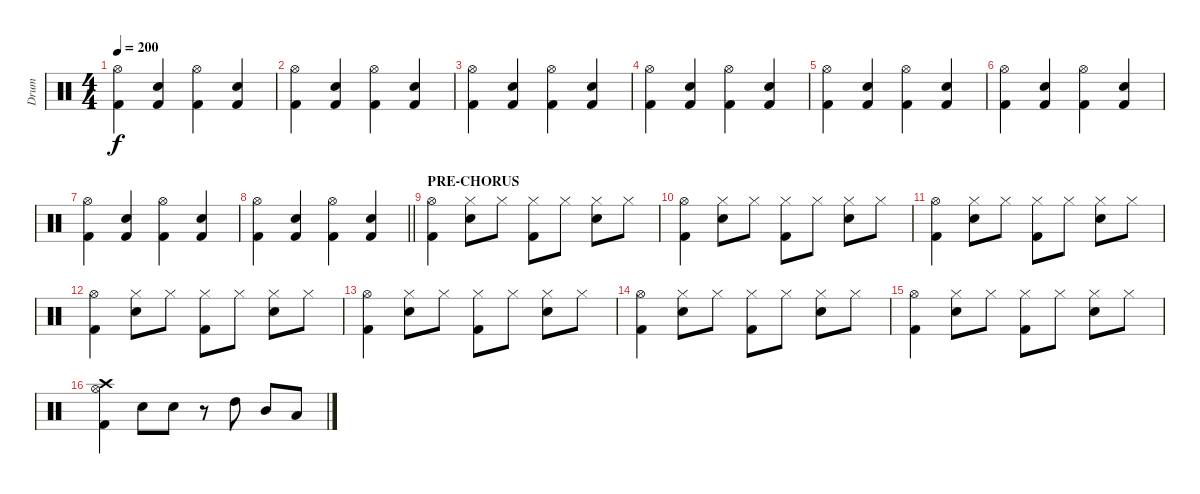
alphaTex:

\track ("Drum" "Drum") {instrument percussion}
\staff {score}
\articulation defaults
\ts (4 4)
\tempo 200
\clef neutral
\ks c
("Hi-Hat (open)" "Kick (hit) 2").4{dy f} ("Snare (hit) 2" "Kick (hit) 2").4 ("Hi-Hat (open)" "Kick (hit) 2").4 ("Snare (hit) 2" "Kick (hit) 2").4 |
("Hi-Hat (open)" "Kick (hit) 2").4 ("Snare (hit) 2" "Kick (hit) 2").4 ("Hi-Hat (open)" "Kick (hit) 2").4 ("Snare (hit) 2" "Kick (hit) 2").4 |
("Hi-Hat (open)" "Kick (hit) 2").4 ("Snare (hit) 2" "Kick (hit) 2").4 ("Hi-Hat (open)" "Kick (hit) 2").4 ("Snare (hit) 2" "Kick (hit) 2").4 |
("Hi-Hat (open)" "Kick (hit) 2").4 ("Snare (hit) 2" "Kick (hit) 2").4 ("Hi-Hat (open)" "Kick (hit) 2").4 ("Snare (hit) 2" "Kick (hit) 2").4 |
("Hi-Hat (open)" "Kick (hit) 2").4 ("Snare (hit) 2" "Kick (hit) 2").4 ("Hi-Hat (open)" "Kick (hit) 2").4 ("Snare (hit) 2" "Kick (hit) 2").4 |
("Hi-Hat (open)" "Kick (hit) 2").4 ("Snare (hit) 2" "Kick (hit) 2").4 ("Hi-Hat (open)" "Kick (hit) 2").4 ("Snare (hit) 2" "Kick (hit) 2").4 |
("Hi-Hat (open)" "Kick (hit) 2").4 ("Snare (hit) 2" "Kick (hit) 2").4 ("Hi-Hat (open)" "Kick (hit) 2").4 ("Snare (hit) 2" "Kick (hit) 2").4 |
\barLineRight lightlight
("Hi-Hat (open)" "Kick (hit) 2").4 ("Snare (hit) 2" "Kick (hit) 2").4 ("Hi-Hat (open)" "Kick (hit) 2").4 ("Snare (hit) 2" "Kick (hit) 2").4 |
\section ("" "PRE-CHORUS")
("Hi-Hat (open)" "Kick (hit) 2").4 ("Hi-Hat (closed)" "Snare (hit) 2").8 "Hi-Hat (closed)".8 ("Hi-Hat (closed)" "Kick (hit) 2").8 "Hi-Hat (closed)".8 ("Hi-Hat (closed)" "Snare (hit) 2").8 "Hi-Hat (closed)".8 |
("Hi-Hat (open)" "Kick (hit) 2").4 ("Hi-Hat (closed)" "Snare (hit) 2").8 "Hi-Hat (closed)".8 ("Hi-Hat (closed)" "Kick (hit) 2").8 "Hi-Hat (closed)".8 ("Hi-Hat (closed)" "Snare (hit) 2").8 "Hi-Hat (closed)".8 |
("Hi-Hat (open)" "Kick (hit) 2").4 ("Hi-Hat (closed)" "Snare (hit) 2").8 "Hi-Hat (closed)".8 ("Hi-Hat (closed)" "Kick (hit) 2").8 "Hi-Hat (closed)".8 ("Hi-Hat (closed)" "Snare (hit) 2").8 "Hi-Hat (closed)".8 |
("Hi-Hat (open)" "Kick (hit) 2").4 ("Hi-Hat (closed)" "Snare (hit) 2").8 "Hi-Hat (closed)".8 ("Hi-Hat (closed)" "Kick (hit) 2").8 "Hi-Hat (closed)".8 ("Hi-Hat (closed)" "Snare (hit) 2").8 "Hi-Hat (closed)".8 |
("Hi-Hat (open)" "Kick (hit) 2").4 ("Hi-Hat (closed)" "Snare (hit) 2").8 "Hi-Hat (closed)".8 ("Hi-Hat (closed)" "Kick (hit) 2").8 "Hi-Hat (closed)".8 ("Hi-Hat (closed)" "Snare (hit) 2").8 "Hi-Hat (closed)".8 |
("Hi-Hat (open)" "Kick (hit) 2").4 ("Hi-Hat (closed)" "Snare (hit) 2").8 "Hi-Hat (closed)".8 ("Hi-Hat (closed)" "Kick (hit) 2").8 "Hi-Hat (closed)".8 ("Hi-Hat (closed)" "Snare (hit) 2").8 "Hi-Hat (closed)".8 |
("Hi-Hat (open)" "Kick (hit) 2").4 ("Hi-Hat (closed)" "Snare (hit) 2").8 "Hi-Hat (closed)".8 ("Hi-Hat (closed)" "Kick (hit) 2").8 "Hi-Hat (closed)".8 ("Hi-Hat (closed)" "Snare (hit) 2").8 "Hi-Hat (closed)".8 |
("Crash high (hit)" "Hi-Hat (open)" "Kick (hit) 2").4 "Snare (hit) 2".8 "Snare (hit) 2".8 r.8 "High Tom (hit)".8 "Mid Tom (hit)".8 "Low Tom (hit)".8
